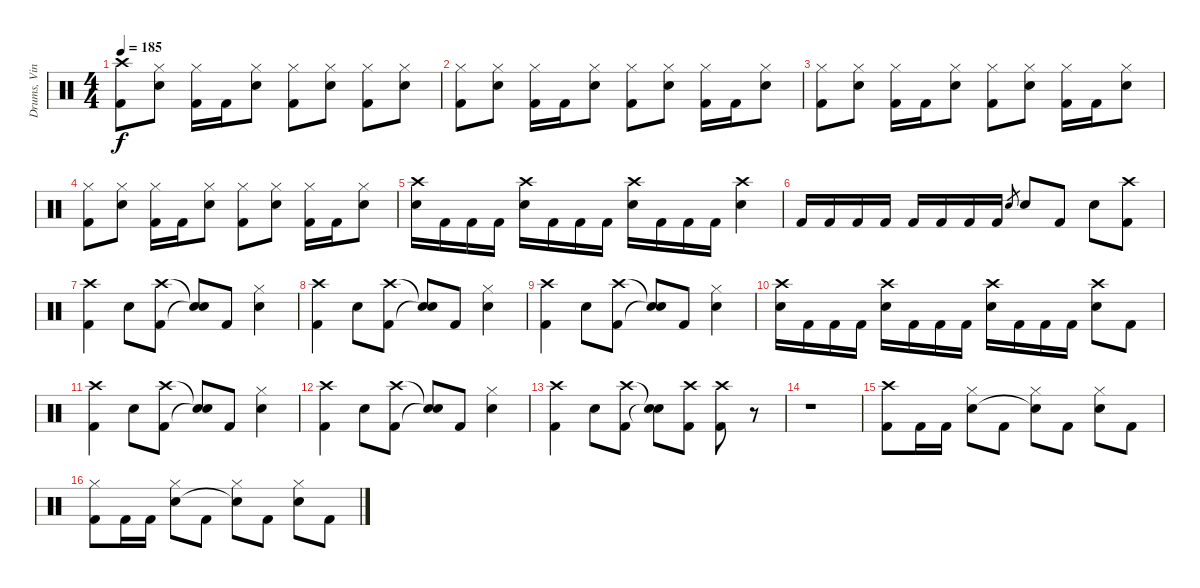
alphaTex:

\track ("Drums, Vinnie" "Drums, Vin") {instrument percussion}
\staff {score}
\articulation defaults
\ts (4 4)
\tempo 185
\clef neutral
\ks c
("Crash high (hit)" "Kick (hit) 2").8{dy f} ("Hi-Hat (closed)" "Electric Snare (hit)").8 ("Hi-Hat (closed)" "Kick (hit) 2").16 "Kick (hit) 2".16 ("Hi-Hat (closed)" "Electric Snare (hit)").8 ("Hi-Hat (closed)" "Kick (hit) 2").8 ("Hi-Hat (closed)" "Electric Snare (hit)").8 ("Hi-Hat (closed)" "Kick (hit) 2").8 ("Hi-Hat (closed)" "Electric Snare (hit)").8 |
("Hi-Hat (closed)" "Kick (hit) 2").8 ("Hi-Hat (closed)" "Electric Snare (hit)").8 ("Hi-Hat (closed)" "Kick (hit) 2").16 "Kick (hit) 2".16 ("Hi-Hat (closed)" "Electric Snare (hit)").8 ("Hi-Hat (closed)" "Kick (hit) 2").8 ("Hi-Hat (closed)" "Electric Snare (hit)").8 ("Hi-Hat (closed)" "Kick (hit) 2").16 "Kick (hit) 2".16 ("Hi-Hat (closed)" "Electric Snare (hit)").8 |
("Hi-Hat (closed)" "Kick (hit) 2").8 ("Hi-Hat (closed)" "Electric Snare (hit)").8 ("Hi-Hat (closed)" "Kick (hit) 2").16 "Kick (hit) 2".16 ("Hi-Hat (closed)" "Electric Snare (hit)").8 ("Hi-Hat (closed)" "Kick (hit) 2").8 ("Hi-Hat (closed)" "Electric Snare (hit)").8 ("Hi-Hat (closed)" "Kick (hit) 2").16 "Kick (hit) 2".16 ("Hi-Hat (closed)" "Electric Snare (hit)").8 |
("Hi-Hat (closed)" "Kick (hit) 2").8 ("Hi-Hat (closed)" "Electric Snare (hit)").8 ("Hi-Hat (closed)" "Kick (hit) 2").16 "Kick (hit) 2".16 ("Hi-Hat (closed)" "Electric Snare (hit)").8 ("Hi-Hat (closed)" "Kick (hit) 2").8 ("Hi-Hat (closed)" "Electric Snare (hit)").8 ("Hi-Hat (closed)" "Kick (hit) 2").16 "Kick (hit) 2".16 ("Hi-Hat (closed)" "Electric Snare (hit)").8 |
("Crash high (hit)" "Electric Snare (hit)").16 "Kick (hit) 2".16 "Kick (hit) 2".16 "Kick (hit) 2".16 ("Crash high (hit)" "Electric Snare (hit)").16 "Kick (hit) 2".16 "Kick (hit) 2".16 "Kick (hit) 2".16 ("Crash high (hit)" "Electric Snare (hit)").16 "Kick (hit) 2".16 "Kick (hit) 2".16 "Kick (hit) 2".16 ("Crash high (hit)" "Electric Snare (hit)").4 |
"Kick (hit) 2".16 "Kick (hit) 2".16 "Kick (hit) 2".16 "Kick (hit) 2".16 "Kick (hit) 2".16 "Kick (hit) 2".16 "Kick (hit) 2".16 "Kick (hit) 2".16 "Electric Snare (hit)".8{gr} "Electric Snare (hit)".8 "Kick (hit) 2".8 "Electric Snare (hit)".8 ("Crash high (hit)" "Kick (hit) 2").8 |
("Crash high (hit)" "Kick (hit) 2").4 "Electric Snare (hit)".8 ("Crash high (hit)" "Kick (hit) 2").8 ("Snare (hit)"{t} "Snare (hit)"{t}).8 "Kick (hit) 2".8 ("Hi-Hat (closed)" "Electric Snare (hit)").4 |
("Crash high (hit)" "Kick (hit) 2").4 "Electric Snare (hit)".8 ("Crash high (hit)" "Kick (hit) 2").8 ("Snare (hit)"{t} "Snare (hit)"{t}).8 "Kick (hit) 2".8 ("Hi-Hat (closed)" "Electric Snare (hit)").4 |
("Crash high (hit)" "Kick (hit) 2").4 "Electric Snare (hit)".8 ("Crash high (hit)" "Kick (hit) 2").8 ("Snare (hit)"{t} "Snare (hit)"{t}).8 "Kick (hit) 2".8 ("Hi-Hat (closed)" "Electric Snare (hit)").4 |
("Crash high (hit)" "Electric Snare (hit)").16 "Kick (hit) 2".16 "Kick (hit) 2".16 "Kick (hit) 2".16 ("Crash high (hit)" "Electric Snare (hit)").16 "Kick (hit) 2".16 "Kick (hit) 2".16 "Kick (hit) 2".16 ("Crash high (hit)" "Electric Snare (hit)").16 "Kick (hit) 2".16 "Kick (hit) 2".16 "Kick (hit) 2".16 ("Crash high (hit)" "Electric Snare (hit)").8 "Kick (hit) 2".8 |
("Crash high (hit)" "Kick (hit) 2").4 "Electric Snare (hit)".8 ("Crash high (hit)" "Kick (hit) 2").8 ("Snare (hit)"{t} "Snare (hit)"{t}).8 "Kick (hit) 2".8 ("Hi-Hat (closed)" "Electric Snare (hit)").4 |
("Crash high (hit)" "Kick (hit) 2").4 "Electric Snare (hit)".8 ("Crash high (hit)" "Kick (hit) 2").8 ("Snare (hit)"{t} "Snare (hit)"{t}).8 "Kick (hit) 2".8 ("Hi-Hat (closed)" "Electric Snare (hit)").4 |
("Crash high (hit)" "Kick (hit) 2").4 "Electric Snare (hit)".8 ("Crash high (hit)" "Kick (hit) 2").8 ("Snare (hit)"{t} "Snare (hit)"{t}).8 ("Crash high (hit)" "Kick (hit) 2").8 ("Crash high (hit)" "Kick (hit) 2").8 r.8 |
r.1 |
("Crash high (hit)" "Kick (hit) 2").8 "Kick (hit) 2".16 "Kick (hit) 2".16 ("Hi-Hat (closed)" "Electric Snare (hit)").8 "Kick (hit) 2".8 ("Hi-Hat (closed)" "Snare (hit)"{t}).8 "Kick (hit) 2".8 ("Hi-Hat (closed)" "Electric Snare (hit)").8 "Kick (hit) 2".8 |
("Hi-Hat (closed)" "Kick (hit) 2").8 "Kick (hit) 2".16 "Kick (hit) 2".16 ("Hi-Hat (closed)" "Electric Snare (hit)").8 "Kick (hit) 2".8 ("Hi-Hat (closed)" "Snare (hit)"{t}).8 "Kick (hit) 2".8 ("Hi-Hat (closed)" "Electric Snare (hit)").8 "Kick (hit) 2".8
